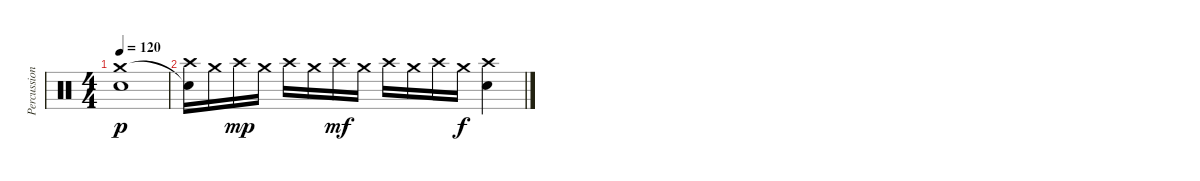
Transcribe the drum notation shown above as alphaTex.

\track ("Percussion" "Percussion") {instrument percussion}
\staff {score}
\articulation defaults
\ts (4 4)
\tempo 120
\clef neutral
\ks c
("Crash medium (hit)" "Electric Snare (hit)").1{dy p} |
("Snare (hit)"{t} "Crash high (hit)").16 "Crash medium (hit)".16 "Crash high (hit)".16{dy mp} "Crash medium (hit)".16 "Crash high (hit)".16 "Crash medium (hit)".16 "Crash high (hit)".16{dy mf} "Crash medium (hit)".16 "Crash high (hit)".16 "Crash medium (hit)".16 "Crash high (hit)".16 "Crash medium (hit)".16{dy f} ("Electric Snare (hit)" "Crash high (hit)").4
